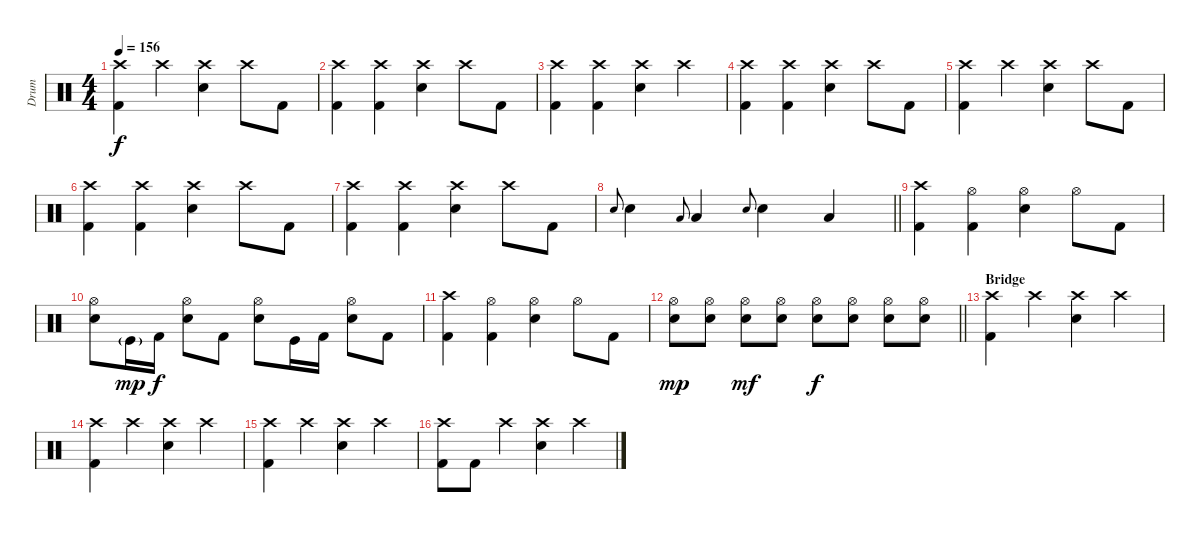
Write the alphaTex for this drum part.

\track ("Drum" "Drum") {instrument percussion}
\staff {score}
\articulation defaults
\ts (4 4)
\section ("" "")
\tempo 156
\clef neutral
\ks c
("Crash high (hit)" "Kick (hit) 2").4{dy f} "Crash high (hit)".4 ("Crash high (hit)" "Snare (hit) 2").4 "Crash high (hit)".8 "Kick (hit) 2".8 |
("Crash high (hit)" "Kick (hit) 2").4 ("Crash high (hit)" "Kick (hit) 2").4 ("Crash high (hit)" "Snare (hit) 2").4 "Crash high (hit)".8 "Kick (hit) 2".8 |
("Crash high (hit)" "Kick (hit) 2").4 ("Crash high (hit)" "Kick (hit) 2").4 ("Crash high (hit)" "Snare (hit) 2").4 "Crash high (hit)".4 |
("Crash high (hit)" "Kick (hit) 2").4 ("Crash high (hit)" "Kick (hit) 2").4 ("Crash high (hit)" "Snare (hit) 2").4 "Crash high (hit)".8 "Kick (hit) 2".8 |
("Crash high (hit)" "Kick (hit) 2").4 "Crash high (hit)".4 ("Crash high (hit)" "Snare (hit) 2").4 "Crash high (hit)".8 "Kick (hit) 2".8 |
("Crash high (hit)" "Kick (hit) 2").4 ("Crash high (hit)" "Kick (hit) 2").4 ("Crash high (hit)" "Snare (hit) 2").4 "Crash high (hit)".8 "Kick (hit) 2".8 |
("Crash high (hit)" "Kick (hit) 2").4 ("Crash high (hit)" "Kick (hit) 2").4 ("Crash high (hit)" "Snare (hit) 2").4 "Crash high (hit)".8 "Kick (hit) 2".8 |
\barLineRight lightlight "Snare (hit) 2".8{gr onbeat} "Snare (hit) 2".4 "Low Tom (hit)".8{gr onbeat} "Low Tom (hit)".4 "Snare (hit) 2".8{gr onbeat} "Snare (hit) 2".4 "Low Tom (hit)".4
|
\section ("" "")
("Crash high (hit)" "Kick (hit) 2").4 ("Hi-Hat (open)" "Kick (hit) 2").4 ("Hi-Hat (open)" "Electric Snare (hit)").4 "Hi-Hat (open)".8 "Kick (hit) 2".8 |
("Hi-Hat (open)" "Electric Snare (hit)").8 "Kick (hit)"{g}.16{dy mp} "Kick (hit) 2".16{dy f} ("Hi-Hat (open)" "Electric Snare (hit)").8 "Kick (hit) 2".8 ("Hi-Hat (open)" "Electric Snare (hit)").8 "Kick (hit)".16 "Kick (hit) 2".16 ("Hi-Hat (open)" "Electric Snare (hit)").8 "Kick (hit) 2".8 |
("Crash high (hit)" "Kick (hit) 2").4 ("Hi-Hat (open)" "Kick (hit) 2").4 ("Hi-Hat (open)" "Electric Snare (hit)").4 "Hi-Hat (open)".8 "Kick (hit) 2".8 |
\barLineRight lightlight
("Hi-Hat (open)" "Electric Snare (hit)").8{dy mp} ("Hi-Hat (open)" "Electric Snare (hit)").8 ("Hi-Hat (open)" "Electric Snare (hit)").8{dy mf} ("Hi-Hat (open)" "Electric Snare (hit)").8 ("Hi-Hat (open)" "Electric Snare (hit)").8{dy f} ("Hi-Hat (open)" "Electric Snare (hit)").8 ("Hi-Hat (open)" "Electric Snare (hit)").8 ("Hi-Hat (open)" "Electric Snare (hit)").8 |
\section ("" "Bridge")
("Crash high (hit)" "Kick (hit) 2").4 "Crash high (hit)".4 ("Crash high (hit)" "Snare (hit) 2").4 "Crash high (hit)".4 |
("Crash high (hit)" "Kick (hit) 2").4 "Crash high (hit)".4 ("Crash high (hit)" "Snare (hit) 2").4 "Crash high (hit)".4 |
("Crash high (hit)" "Kick (hit) 2").4 "Crash high (hit)".4 ("Crash high (hit)" "Snare (hit) 2").4 "Crash high (hit)".4 |
("Crash high (hit)" "Kick (hit) 2").8 "Kick (hit) 2".8 "Crash high (hit)".4 ("Crash high (hit)" "Snare (hit) 2").4 "Crash high (hit)".4
